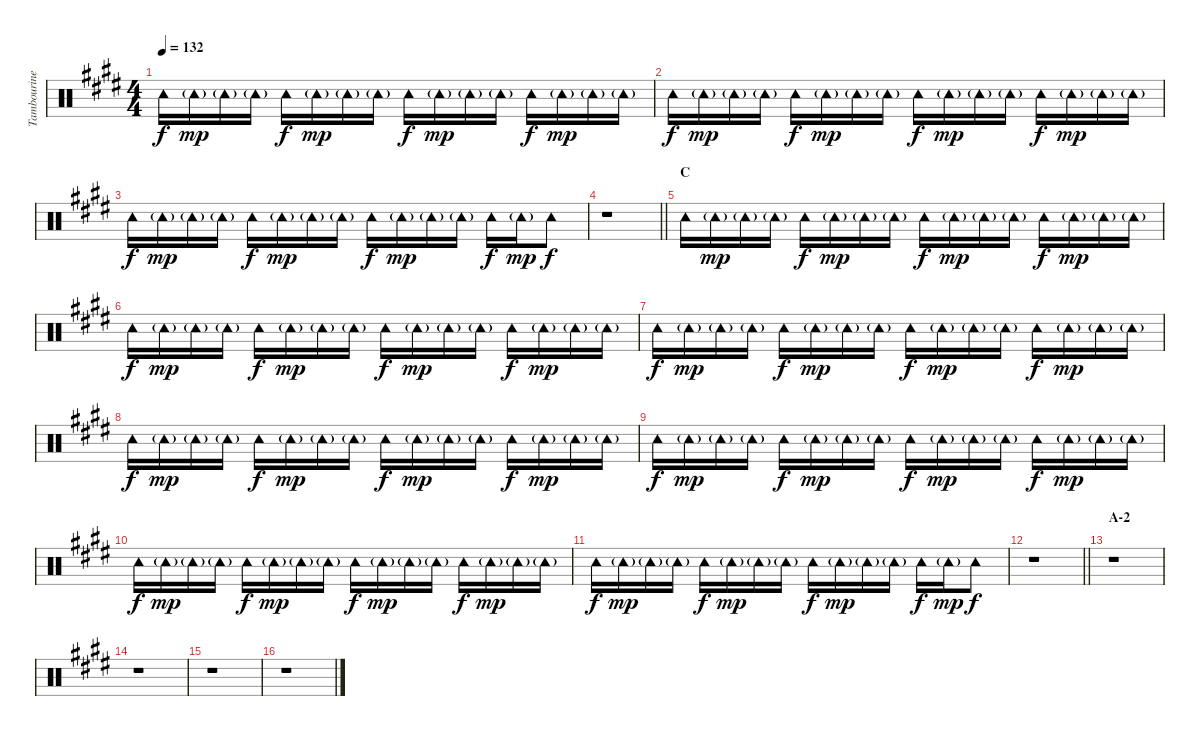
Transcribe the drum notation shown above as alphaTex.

\track ("Tambourine" "Tambourine") {instrument percussion}
\staff {score}
\articulation defaults
\ts (4 4)
\tempo 132
\clef neutral
\ks e "Tambourine (hit)".16{dy f} "Tambourine (hit)"{g}.16{dy mp} "Tambourine (hit)"{g}.16 "Tambourine (hit)"{g}.16 "Tambourine (hit)".16{dy f} "Tambourine (hit)"{g}.16{dy mp} "Tambourine (hit)"{g}.16 "Tambourine (hit)"{g}.16 "Tambourine (hit)".16{dy f} "Tambourine (hit)"{g}.16{dy mp} "Tambourine (hit)"{g}.16 "Tambourine (hit)"{g}.16 "Tambourine (hit)".16{dy f} "Tambourine (hit)"{g}.16{dy mp} "Tambourine (hit)"{g}.16 "Tambourine (hit)"{g}.16
|
"Tambourine (hit)".16{dy f} "Tambourine (hit)"{g}.16{dy mp} "Tambourine (hit)"{g}.16 "Tambourine (hit)"{g}.16 "Tambourine (hit)".16{dy f} "Tambourine (hit)"{g}.16{dy mp} "Tambourine (hit)"{g}.16 "Tambourine (hit)"{g}.16 "Tambourine (hit)".16{dy f} "Tambourine (hit)"{g}.16{dy mp} "Tambourine (hit)"{g}.16 "Tambourine (hit)"{g}.16 "Tambourine (hit)".16{dy f} "Tambourine (hit)"{g}.16{dy mp} "Tambourine (hit)"{g}.16 "Tambourine (hit)"{g}.16 |
"Tambourine (hit)".16{dy f} "Tambourine (hit)"{g}.16{dy mp} "Tambourine (hit)"{g}.16 "Tambourine (hit)"{g}.16 "Tambourine (hit)".16{dy f} "Tambourine (hit)"{g}.16{dy mp} "Tambourine (hit)"{g}.16 "Tambourine (hit)"{g}.16 "Tambourine (hit)".16{dy f} "Tambourine (hit)"{g}.16{dy mp} "Tambourine (hit)"{g}.16 "Tambourine (hit)"{g}.16 "Tambourine (hit)".16{dy f} "Tambourine (hit)"{g}.16{dy mp} "Tambourine (hit)".8{dy f} |
\barLineRight lightlight
r.1 |
\section ("" "C")
"Tambourine (hit)".16 "Tambourine (hit)"{g}.16{dy mp} "Tambourine (hit)"{g}.16 "Tambourine (hit)"{g}.16 "Tambourine (hit)".16{dy f} "Tambourine (hit)"{g}.16{dy mp} "Tambourine (hit)"{g}.16 "Tambourine (hit)"{g}.16 "Tambourine (hit)".16{dy f} "Tambourine (hit)"{g}.16{dy mp} "Tambourine (hit)"{g}.16 "Tambourine (hit)"{g}.16 "Tambourine (hit)".16{dy f} "Tambourine (hit)"{g}.16{dy mp} "Tambourine (hit)"{g}.16 "Tambourine (hit)"{g}.16 |
"Tambourine (hit)".16{dy f} "Tambourine (hit)"{g}.16{dy mp} "Tambourine (hit)"{g}.16 "Tambourine (hit)"{g}.16 "Tambourine (hit)".16{dy f} "Tambourine (hit)"{g}.16{dy mp} "Tambourine (hit)"{g}.16 "Tambourine (hit)"{g}.16 "Tambourine (hit)".16{dy f} "Tambourine (hit)"{g}.16{dy mp} "Tambourine (hit)"{g}.16 "Tambourine (hit)"{g}.16 "Tambourine (hit)".16{dy f} "Tambourine (hit)"{g}.16{dy mp} "Tambourine (hit)"{g}.16 "Tambourine (hit)"{g}.16 |
"Tambourine (hit)".16{dy f} "Tambourine (hit)"{g}.16{dy mp} "Tambourine (hit)"{g}.16 "Tambourine (hit)"{g}.16 "Tambourine (hit)".16{dy f} "Tambourine (hit)"{g}.16{dy mp} "Tambourine (hit)"{g}.16 "Tambourine (hit)"{g}.16 "Tambourine (hit)".16{dy f} "Tambourine (hit)"{g}.16{dy mp} "Tambourine (hit)"{g}.16 "Tambourine (hit)"{g}.16 "Tambourine (hit)".16{dy f} "Tambourine (hit)"{g}.16{dy mp} "Tambourine (hit)"{g}.16 "Tambourine (hit)"{g}.16 |
"Tambourine (hit)".16{dy f} "Tambourine (hit)"{g}.16{dy mp} "Tambourine (hit)"{g}.16 "Tambourine (hit)"{g}.16 "Tambourine (hit)".16{dy f} "Tambourine (hit)"{g}.16{dy mp} "Tambourine (hit)"{g}.16 "Tambourine (hit)"{g}.16 "Tambourine (hit)".16{dy f} "Tambourine (hit)"{g}.16{dy mp} "Tambourine (hit)"{g}.16 "Tambourine (hit)"{g}.16 "Tambourine (hit)".16{dy f} "Tambourine (hit)"{g}.16{dy mp} "Tambourine (hit)"{g}.16 "Tambourine (hit)"{g}.16 |
"Tambourine (hit)".16{dy f} "Tambourine (hit)"{g}.16{dy mp} "Tambourine (hit)"{g}.16 "Tambourine (hit)"{g}.16 "Tambourine (hit)".16{dy f} "Tambourine (hit)"{g}.16{dy mp} "Tambourine (hit)"{g}.16 "Tambourine (hit)"{g}.16 "Tambourine (hit)".16{dy f} "Tambourine (hit)"{g}.16{dy mp} "Tambourine (hit)"{g}.16 "Tambourine (hit)"{g}.16 "Tambourine (hit)".16{dy f} "Tambourine (hit)"{g}.16{dy mp} "Tambourine (hit)"{g}.16 "Tambourine (hit)"{g}.16 |
"Tambourine (hit)".16{dy f} "Tambourine (hit)"{g}.16{dy mp} "Tambourine (hit)"{g}.16 "Tambourine (hit)"{g}.16 "Tambourine (hit)".16{dy f} "Tambourine (hit)"{g}.16{dy mp} "Tambourine (hit)"{g}.16 "Tambourine (hit)"{g}.16 "Tambourine (hit)".16{dy f} "Tambourine (hit)"{g}.16{dy mp} "Tambourine (hit)"{g}.16 "Tambourine (hit)"{g}.16 "Tambourine (hit)".16{dy f} "Tambourine (hit)"{g}.16{dy mp} "Tambourine (hit)"{g}.16 "Tambourine (hit)"{g}.16 |
"Tambourine (hit)".16{dy f} "Tambourine (hit)"{g}.16{dy mp} "Tambourine (hit)"{g}.16 "Tambourine (hit)"{g}.16 "Tambourine (hit)".16{dy f} "Tambourine (hit)"{g}.16{dy mp} "Tambourine (hit)"{g}.16 "Tambourine (hit)"{g}.16 "Tambourine (hit)".16{dy f} "Tambourine (hit)"{g}.16{dy mp} "Tambourine (hit)"{g}.16 "Tambourine (hit)"{g}.16 "Tambourine (hit)".16{dy f} "Tambourine (hit)"{g}.16{dy mp} "Tambourine (hit)".8{dy f} |
\barLineRight lightlight
r.1 |
\section ("" "A-2")
r.1 |
r.1 |
r.1 |
r.1
